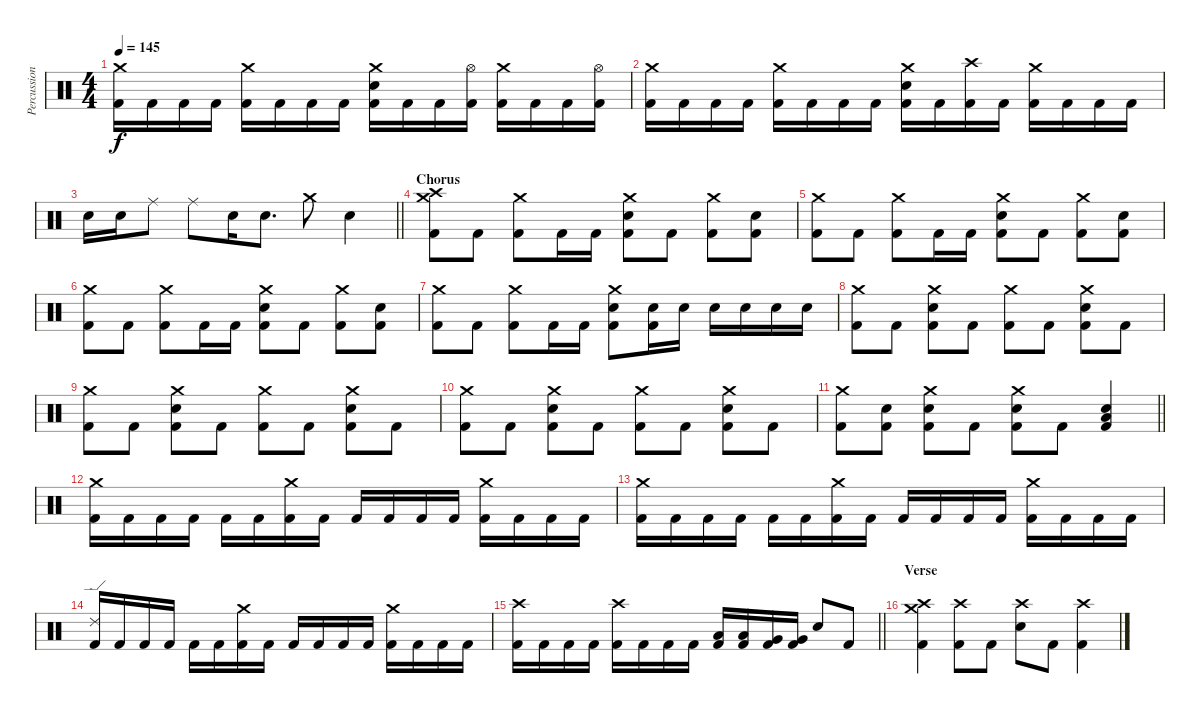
\track ("Percussion" "Percussion") {instrument percussion}
\staff {score}
\articulation defaults
\ts (4 4)
\tempo 145
\clef neutral
\ks c
("Crash medium (hit)" "Kick (hit) 2").16{dy f} "Kick (hit) 2".16 "Kick (hit) 2".16 "Kick (hit) 2".16 ("Crash medium (hit)" "Kick (hit) 2").16 "Kick (hit) 2".16 "Kick (hit) 2".16 "Kick (hit) 2".16 ("Crash medium (hit)" "Electric Snare (hit)" "Kick (hit) 2").16 "Kick (hit) 2".16 "Kick (hit) 2".16 ("Hi-Hat (open)" "Kick (hit) 2").16 ("Crash medium (hit)" "Kick (hit) 2").16 "Kick (hit) 2".16 "Kick (hit) 2".16 ("Hi-Hat (open)" "Kick (hit) 2").16 |
("Crash medium (hit)" "Kick (hit) 2").16 "Kick (hit) 2".16 "Kick (hit) 2".16 "Kick (hit) 2".16 ("Crash medium (hit)" "Kick (hit) 2").16 "Kick (hit) 2".16 "Kick (hit) 2".16 "Kick (hit) 2".16 ("Crash medium (hit)" "Electric Snare (hit)" "Kick (hit) 2").16 "Kick (hit) 2".16 ("Crash high (hit)" "Kick (hit) 2").16 "Kick (hit) 2".16 ("Crash medium (hit)" "Kick (hit) 2").16 "Kick (hit) 2".16 "Kick (hit) 2".16 "Kick (hit) 2".16 |
\barLineRight lightlight "Electric Snare (hit)".16 "Electric Snare (hit)".16 "Ride (middle)".8 "Ride (middle)".8 "Electric Snare (hit)".16 "Electric Snare (hit)".8{d} "Crash medium (hit)".8 "Electric Snare (hit)".4
|
\section ("" "Chorus")
("Crash high (hit)" "Crash medium (hit)" "Kick (hit) 2").8 "Kick (hit) 2".8 ("Crash medium (hit)" "Kick (hit) 2").8 "Kick (hit) 2".16 "Kick (hit) 2".16 ("Crash medium (hit)" "Electric Snare (hit)" "Kick (hit) 2").8 "Kick (hit) 2".8 ("Crash medium (hit)" "Kick (hit) 2").8 ("Electric Snare (hit)" "Kick (hit) 2").8 |
("Crash medium (hit)" "Kick (hit) 2").8 "Kick (hit) 2".8 ("Crash medium (hit)" "Kick (hit) 2").8 "Kick (hit) 2".16 "Kick (hit) 2".16 ("Crash medium (hit)" "Electric Snare (hit)" "Kick (hit) 2").8 "Kick (hit) 2".8 ("Crash medium (hit)" "Kick (hit) 2").8 ("Electric Snare (hit)" "Kick (hit) 2").8 |
("Crash medium (hit)" "Kick (hit) 2").8 "Kick (hit) 2".8 ("Crash medium (hit)" "Kick (hit) 2").8 "Kick (hit) 2".16 "Kick (hit) 2".16 ("Crash medium (hit)" "Electric Snare (hit)" "Kick (hit) 2").8 "Kick (hit) 2".8 ("Crash medium (hit)" "Kick (hit) 2").8 ("Electric Snare (hit)" "Kick (hit) 2").8 |
("Crash medium (hit)" "Kick (hit) 2").8 "Kick (hit) 2".8 ("Crash medium (hit)" "Kick (hit) 2").8 "Kick (hit) 2".16 "Kick (hit) 2".16 ("Crash medium (hit)" "Electric Snare (hit)" "Kick (hit) 2").8 ("Electric Snare (hit)" "Kick (hit) 2").16 "Electric Snare (hit)".16 "Electric Snare (hit)".16 "Electric Snare (hit)".16 "Electric Snare (hit)".16 "Electric Snare (hit)".16 |
("Crash medium (hit)" "Kick (hit) 2").8 "Kick (hit) 2".8 ("Crash medium (hit)" "Electric Snare (hit)" "Kick (hit) 2").8 "Kick (hit) 2".8 ("Crash medium (hit)" "Kick (hit) 2").8 "Kick (hit) 2".8 ("Crash medium (hit)" "Electric Snare (hit)" "Kick (hit) 2").8 "Kick (hit) 2".8 |
("Crash medium (hit)" "Kick (hit) 2").8 "Kick (hit) 2".8 ("Crash medium (hit)" "Electric Snare (hit)" "Kick (hit) 2").8 "Kick (hit) 2".8 ("Crash medium (hit)" "Kick (hit) 2").8 "Kick (hit) 2".8 ("Crash medium (hit)" "Electric Snare (hit)" "Kick (hit) 2").8 "Kick (hit) 2".8 |
("Crash medium (hit)" "Kick (hit) 2").8 "Kick (hit) 2".8 ("Crash medium (hit)" "Electric Snare (hit)" "Kick (hit) 2").8 "Kick (hit) 2".8 ("Crash medium (hit)" "Kick (hit) 2").8 "Kick (hit) 2".8 ("Crash medium (hit)" "Electric Snare (hit)" "Kick (hit) 2").8 "Kick (hit) 2".8 |
\barLineRight lightlight
("Crash medium (hit)" "Kick (hit) 2").8 ("Electric Snare (hit)" "Kick (hit) 2").8 ("Crash medium (hit)" "Electric Snare (hit)" "Kick (hit) 2").8 "Kick (hit) 2".8 ("Crash medium (hit)" "Electric Snare (hit)" "Kick (hit) 2").8 "Kick (hit) 2".8 ("Electric Snare (hit)" "Low Floor Tom (hit)" "Kick (hit) 2").4 |
("Crash medium (hit)" "Kick (hit) 2").16 "Kick (hit) 2".16 "Kick (hit) 2".16 "Kick (hit) 2".16 "Kick (hit) 2".16 "Kick (hit) 2".16 ("Crash medium (hit)" "Kick (hit) 2").16 "Kick (hit) 2".16 "Kick (hit) 2".16 "Kick (hit) 2".16 "Kick (hit) 2".16 "Kick (hit) 2".16 ("Crash medium (hit)" "Kick (hit) 2").16 "Kick (hit) 2".16 "Kick (hit) 2".16 "Kick (hit) 2".16 |
("Crash medium (hit)" "Kick (hit) 2").16 "Kick (hit) 2".16 "Kick (hit) 2".16 "Kick (hit) 2".16 "Kick (hit) 2".16 "Kick (hit) 2".16 ("Crash medium (hit)" "Kick (hit) 2").16 "Kick (hit) 2".16 "Kick (hit) 2".16 "Kick (hit) 2".16 "Kick (hit) 2".16 "Kick (hit) 2".16 ("Crash medium (hit)" "Kick (hit) 2").16 "Kick (hit) 2".16 "Kick (hit) 2".16 "Kick (hit) 2".16 |
("Ride (edge) 2" "Kick (hit) 2").16 "Kick (hit) 2".16 "Kick (hit) 2".16 "Kick (hit) 2".16 "Kick (hit) 2".16 "Kick (hit) 2".16 ("Crash medium (hit)" "Kick (hit) 2").16 "Kick (hit) 2".16 "Kick (hit) 2".16 "Kick (hit) 2".16 "Kick (hit) 2".16 "Kick (hit) 2".16 ("Crash medium (hit)" "Kick (hit) 2").16 "Kick (hit) 2".16 "Kick (hit) 2".16 "Kick (hit) 2".16 |
\barLineRight lightlight
("Crash high (hit)" "Kick (hit) 2").16 "Kick (hit) 2".16 "Kick (hit) 2".16 "Kick (hit) 2".16 ("Crash high (hit)" "Kick (hit) 2").16 "Kick (hit) 2".16 "Kick (hit) 2".16 "Kick (hit) 2".16 ("Low Tom (hit)" "Kick (hit) 2").16 ("Low Tom (hit)" "Kick (hit) 2").16 ("Very Low Tom (hit)" "Kick (hit) 2").16 ("Very Low Tom (hit)" "Kick (hit) 2").16 "Electric Snare (hit)".8 "Kick (hit) 2".8 |
\section ("" "Verse")
("Crash high (hit)" "Crash medium (hit)" "Kick (hit) 2").4 ("Crash high (hit)" "Kick (hit) 2").8 "Kick (hit) 2".8 ("Crash high (hit)" "Electric Snare (hit)").8 "Kick (hit) 2".8 ("Crash high (hit)" "Kick (hit) 2").4
